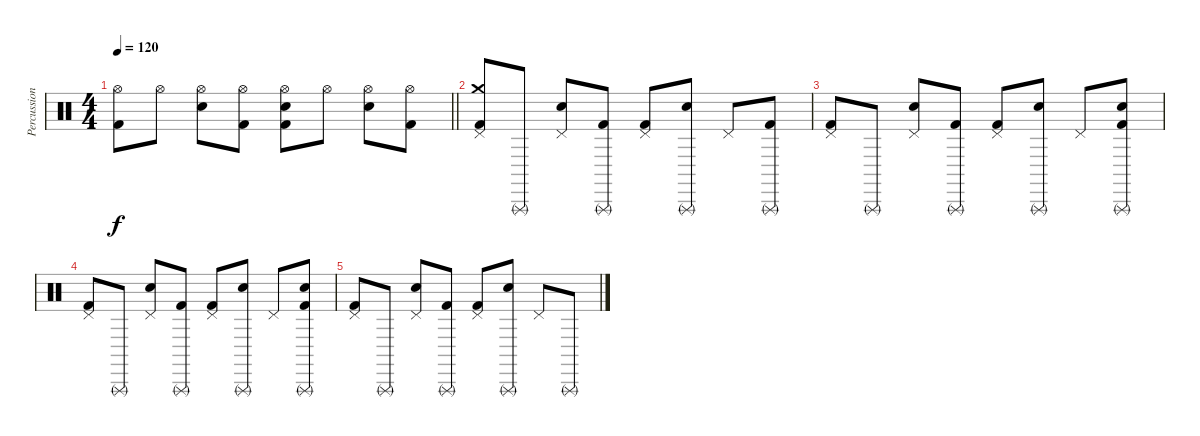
\track ("Percussion" "Percussion") {instrument percussion}
\staff {score}
\articulation defaults
\ts (4 4)
\tempo 120
\clef neutral
\barLineRight lightlight
\ks c
("Hi-Hat (open)" "Kick (hit) 2").8{dy f} "Hi-Hat (open)".8 ("Hi-Hat (open)" "Snare (hit) 2").8 ("Hi-Hat (open)" "Kick (hit) 2").8 ("Hi-Hat (open)" "Snare (hit) 2" "Kick (hit) 2").8 "Hi-Hat (open)".8 ("Hi-Hat (open)" "Snare (hit) 2").8 ("Hi-Hat (open)" "Kick (hit) 2").8 |
("Crash medium (hit)" "Pedal Hi-Hat (hit)" "Kick (hit) 2").8 "Triangle (rnute)".8 ("Pedal Hi-Hat (hit)" "Snare (hit) 2").8 ("Triangle (rnute)" "Kick (hit) 2").8 ("Pedal Hi-Hat (hit)" "Kick (hit) 2").8 ("Triangle (rnute)" "Snare (hit) 2").8 "Pedal Hi-Hat (hit)".8 ("Triangle (rnute)" "Kick (hit) 2").8 |
("Pedal Hi-Hat (hit)" "Kick (hit) 2").8 "Triangle (rnute)".8 ("Pedal Hi-Hat (hit)" "Snare (hit) 2").8 ("Triangle (rnute)" "Kick (hit) 2").8 ("Pedal Hi-Hat (hit)" "Kick (hit) 2").8 ("Triangle (rnute)" "Snare (hit) 2").8 "Pedal Hi-Hat (hit)".8 ("Triangle (rnute)" "Snare (hit) 2" "Kick (hit) 2").8 |
("Pedal Hi-Hat (hit)" "Kick (hit) 2").8 "Triangle (rnute)".8 ("Pedal Hi-Hat (hit)" "Snare (hit) 2").8 ("Triangle (rnute)" "Kick (hit) 2").8 ("Pedal Hi-Hat (hit)" "Kick (hit) 2").8 ("Triangle (rnute)" "Snare (hit) 2").8 "Pedal Hi-Hat (hit)".8 ("Triangle (rnute)" "Snare (hit) 2" "Kick (hit) 2").8 |
("Pedal Hi-Hat (hit)" "Kick (hit) 2").8 "Triangle (rnute)".8 ("Pedal Hi-Hat (hit)" "Snare (hit) 2").8 ("Triangle (rnute)" "Kick (hit) 2").8 ("Pedal Hi-Hat (hit)" "Kick (hit) 2").8 ("Triangle (rnute)" "Snare (hit) 2").8 "Pedal Hi-Hat (hit)".8 "Triangle (rnute)".8
